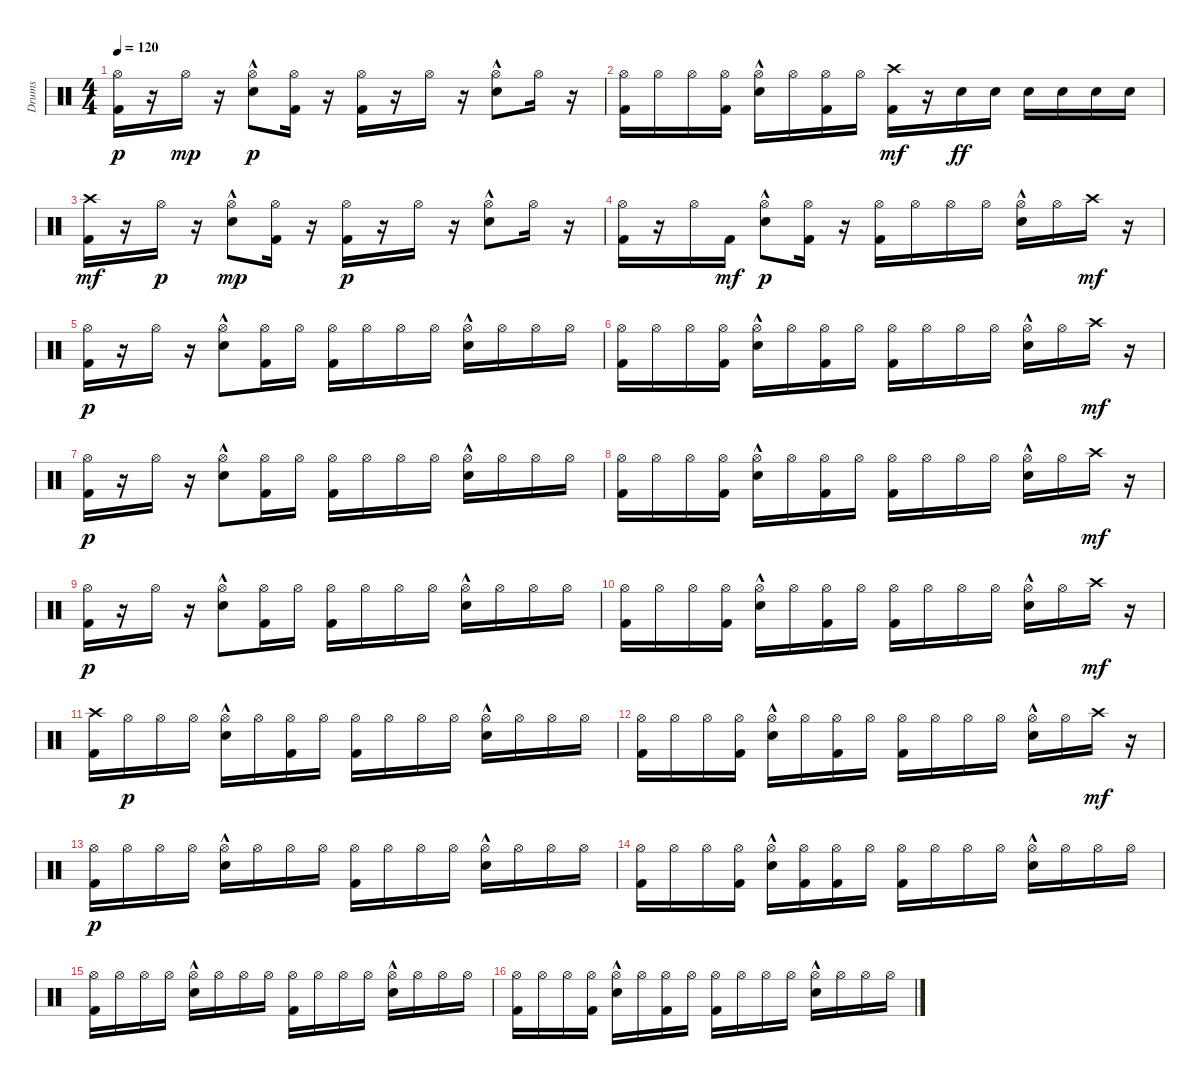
\track ("Drums" "Drums") {instrument percussion}
\staff {score}
\articulation defaults
\ts (4 4)
\tempo 120
\clef neutral
\ks c
("Kick (hit) 2" "Hi-Hat (open)").16{dy p} r.16 "Hi-Hat (open)".16{dy mp} r.16 ("Electric Snare (hit)"{hac} "Hi-Hat (open)").8{dy p} ("Kick (hit) 2" "Hi-Hat (open)").16 r.16 ("Kick (hit) 2" "Hi-Hat (open)").16 r.16 "Hi-Hat (open)".16 r.16 ("Electric Snare (hit)"{hac} "Hi-Hat (open)").8 "Hi-Hat (open)".16 r.16 |
("Kick (hit) 2" "Hi-Hat (open)").16 "Hi-Hat (open)".16 "Hi-Hat (open)".16 ("Kick (hit) 2" "Hi-Hat (open)").16 ("Electric Snare (hit)"{hac} "Hi-Hat (open)").16 "Hi-Hat (open)".16 ("Kick (hit) 2" "Hi-Hat (open)").16 "Hi-Hat (open)".16 ("Kick (hit) 2" "Crash high (hit)").16{dy mf} r.16 "Electric Snare (hit)".16{dy ff} "Electric Snare (hit)".16 "Electric Snare (hit)".16 "Electric Snare (hit)".16 "Electric Snare (hit)".16 "Electric Snare (hit)".16 |
("Kick (hit) 2" "Crash high (hit)").16{dy mf} r.16 "Hi-Hat (open)".16{dy p} r.16 ("Electric Snare (hit)"{hac} "Hi-Hat (open)").8{dy mp} ("Kick (hit) 2" "Hi-Hat (open)").16 r.16 ("Kick (hit) 2" "Hi-Hat (open)").16{dy p} r.16 "Hi-Hat (open)".16 r.16 ("Electric Snare (hit)"{hac} "Hi-Hat (open)").8 "Hi-Hat (open)".16 r.16 |
("Kick (hit) 2" "Hi-Hat (open)").16 r.16 "Hi-Hat (open)".16 "Kick (hit) 2".16{dy mf} ("Electric Snare (hit)"{hac} "Hi-Hat (open)").8{dy p} ("Kick (hit) 2" "Hi-Hat (open)").16 r.16 ("Kick (hit) 2" "Hi-Hat (open)").16 "Hi-Hat (open)".16 "Hi-Hat (open)".16 "Hi-Hat (open)".16 ("Electric Snare (hit)"{hac} "Hi-Hat (open)").16 "Hi-Hat (open)".16 "Crash high (hit)".16{dy mf} r.16 |
("Kick (hit) 2" "Hi-Hat (open)").16{dy p} r.16 "Hi-Hat (open)".16 r.16 ("Electric Snare (hit)"{hac} "Hi-Hat (open)").8 ("Kick (hit) 2" "Hi-Hat (open)").16 "Hi-Hat (open)".16 ("Kick (hit) 2" "Hi-Hat (open)").16 "Hi-Hat (open)".16 "Hi-Hat (open)".16 "Hi-Hat (open)".16 ("Electric Snare (hit)"{hac} "Hi-Hat (open)").16 "Hi-Hat (open)".16 "Hi-Hat (open)".16 "Hi-Hat (open)".16 |
("Kick (hit) 2" "Hi-Hat (open)").16 "Hi-Hat (open)".16 "Hi-Hat (open)".16 ("Kick (hit) 2" "Hi-Hat (open)").16 ("Electric Snare (hit)"{hac} "Hi-Hat (open)").16 "Hi-Hat (open)".16 ("Kick (hit) 2" "Hi-Hat (open)").16 "Hi-Hat (open)".16 ("Kick (hit) 2" "Hi-Hat (open)").16 "Hi-Hat (open)".16 "Hi-Hat (open)".16 "Hi-Hat (open)".16 ("Electric Snare (hit)"{hac} "Hi-Hat (open)").16 "Hi-Hat (open)".16 "Crash high (hit)".16{dy mf} r.16 |
("Kick (hit) 2" "Hi-Hat (open)").16{dy p} r.16 "Hi-Hat (open)".16 r.16 ("Electric Snare (hit)"{hac} "Hi-Hat (open)").8 ("Kick (hit) 2" "Hi-Hat (open)").16 "Hi-Hat (open)".16 ("Kick (hit) 2" "Hi-Hat (open)").16 "Hi-Hat (open)".16 "Hi-Hat (open)".16 "Hi-Hat (open)".16 ("Electric Snare (hit)"{hac} "Hi-Hat (open)").16 "Hi-Hat (open)".16 "Hi-Hat (open)".16 "Hi-Hat (open)".16 |
("Kick (hit) 2" "Hi-Hat (open)").16 "Hi-Hat (open)".16 "Hi-Hat (open)".16 ("Kick (hit) 2" "Hi-Hat (open)").16 ("Electric Snare (hit)"{hac} "Hi-Hat (open)").16 "Hi-Hat (open)".16 ("Kick (hit) 2" "Hi-Hat (open)").16 "Hi-Hat (open)".16 ("Kick (hit) 2" "Hi-Hat (open)").16 "Hi-Hat (open)".16 "Hi-Hat (open)".16 "Hi-Hat (open)".16 ("Electric Snare (hit)"{hac} "Hi-Hat (open)").16 "Hi-Hat (open)".16 "Crash high (hit)".16{dy mf} r.16 |
("Kick (hit) 2" "Hi-Hat (open)").16{dy p} r.16 "Hi-Hat (open)".16 r.16 ("Electric Snare (hit)"{hac} "Hi-Hat (open)").8 ("Kick (hit) 2" "Hi-Hat (open)").16 "Hi-Hat (open)".16 ("Kick (hit) 2" "Hi-Hat (open)").16 "Hi-Hat (open)".16 "Hi-Hat (open)".16 "Hi-Hat (open)".16 ("Electric Snare (hit)"{hac} "Hi-Hat (open)").16 "Hi-Hat (open)".16 "Hi-Hat (open)".16 "Hi-Hat (open)".16 |
("Kick (hit) 2" "Hi-Hat (open)").16 "Hi-Hat (open)".16 "Hi-Hat (open)".16 ("Kick (hit) 2" "Hi-Hat (open)").16 ("Electric Snare (hit)"{hac} "Hi-Hat (open)").16 "Hi-Hat (open)".16 ("Kick (hit) 2" "Hi-Hat (open)").16 "Hi-Hat (open)".16 ("Kick (hit) 2" "Hi-Hat (open)").16 "Hi-Hat (open)".16 "Hi-Hat (open)".16 "Hi-Hat (open)".16 ("Electric Snare (hit)"{hac} "Hi-Hat (open)").16 "Hi-Hat (open)".16 "Crash high (hit)".16{dy mf} r.16 |
("Kick (hit) 2" "Crash high (hit)").16 "Hi-Hat (open)".16{dy p} "Hi-Hat (open)".16 "Hi-Hat (open)".16 ("Electric Snare (hit)"{hac} "Hi-Hat (open)").16 "Hi-Hat (open)".16 ("Kick (hit) 2" "Hi-Hat (open)").16 "Hi-Hat (open)".16 ("Kick (hit) 2" "Hi-Hat (open)").16 "Hi-Hat (open)".16 "Hi-Hat (open)".16 "Hi-Hat (open)".16 ("Electric Snare (hit)"{hac} "Hi-Hat (open)").16 "Hi-Hat (open)".16 "Hi-Hat (open)".16 "Hi-Hat (open)".16 |
("Kick (hit) 2" "Hi-Hat (open)").16 "Hi-Hat (open)".16 "Hi-Hat (open)".16 ("Kick (hit) 2" "Hi-Hat (open)").16 ("Electric Snare (hit)"{hac} "Hi-Hat (open)").16 "Hi-Hat (open)".16 ("Kick (hit) 2" "Hi-Hat (open)").16 "Hi-Hat (open)".16 ("Kick (hit) 2" "Hi-Hat (open)").16 "Hi-Hat (open)".16 "Hi-Hat (open)".16 "Hi-Hat (open)".16 ("Electric Snare (hit)"{hac} "Hi-Hat (open)").16 "Hi-Hat (open)".16 "Crash high (hit)".16{dy mf} r.16 |
("Kick (hit) 2" "Hi-Hat (open)").16{dy p} "Hi-Hat (open)".16 "Hi-Hat (open)".16 "Hi-Hat (open)".16 ("Electric Snare (hit)"{hac} "Hi-Hat (open)").16 "Hi-Hat (open)".16 "Hi-Hat (open)".16 "Hi-Hat (open)".16 ("Kick (hit) 2" "Hi-Hat (open)").16 "Hi-Hat (open)".16 "Hi-Hat (open)".16 "Hi-Hat (open)".16 ("Electric Snare (hit)"{hac} "Hi-Hat (open)").16 "Hi-Hat (open)".16 "Hi-Hat (open)".16 "Hi-Hat (open)".16 |
("Kick (hit) 2" "Hi-Hat (open)").16 "Hi-Hat (open)".16 "Hi-Hat (open)".16 ("Kick (hit) 2" "Hi-Hat (open)").16 ("Electric Snare (hit)"{hac} "Hi-Hat (open)").16 ("Kick (hit) 2" "Hi-Hat (open)").16 ("Kick (hit) 2" "Hi-Hat (open)").16 "Hi-Hat (open)".16 ("Kick (hit) 2" "Hi-Hat (open)").16 "Hi-Hat (open)".16 "Hi-Hat (open)".16 "Hi-Hat (open)".16 ("Electric Snare (hit)"{hac} "Hi-Hat (open)").16 "Hi-Hat (open)".16 "Hi-Hat (open)".16 "Hi-Hat (open)".16 |
("Kick (hit) 2" "Hi-Hat (open)").16 "Hi-Hat (open)".16 "Hi-Hat (open)".16 "Hi-Hat (open)".16 ("Electric Snare (hit)"{hac} "Hi-Hat (open)").16 "Hi-Hat (open)".16 "Hi-Hat (open)".16 "Hi-Hat (open)".16 ("Kick (hit) 2" "Hi-Hat (open)").16 "Hi-Hat (open)".16 "Hi-Hat (open)".16 "Hi-Hat (open)".16 ("Electric Snare (hit)"{hac} "Hi-Hat (open)").16 "Hi-Hat (open)".16 "Hi-Hat (open)".16 "Hi-Hat (open)".16 |
("Kick (hit) 2" "Hi-Hat (open)").16 "Hi-Hat (open)".16 "Hi-Hat (open)".16 ("Kick (hit) 2" "Hi-Hat (open)").16 ("Electric Snare (hit)"{hac} "Hi-Hat (open)").16 "Hi-Hat (open)".16 ("Kick (hit) 2" "Hi-Hat (open)").16 "Hi-Hat (open)".16 ("Kick (hit) 2" "Hi-Hat (open)").16 "Hi-Hat (open)".16 "Hi-Hat (open)".16 "Hi-Hat (open)".16 ("Electric Snare (hit)"{hac} "Hi-Hat (open)").16 "Hi-Hat (open)".16 "Hi-Hat (open)".16 "Hi-Hat (open)".16
